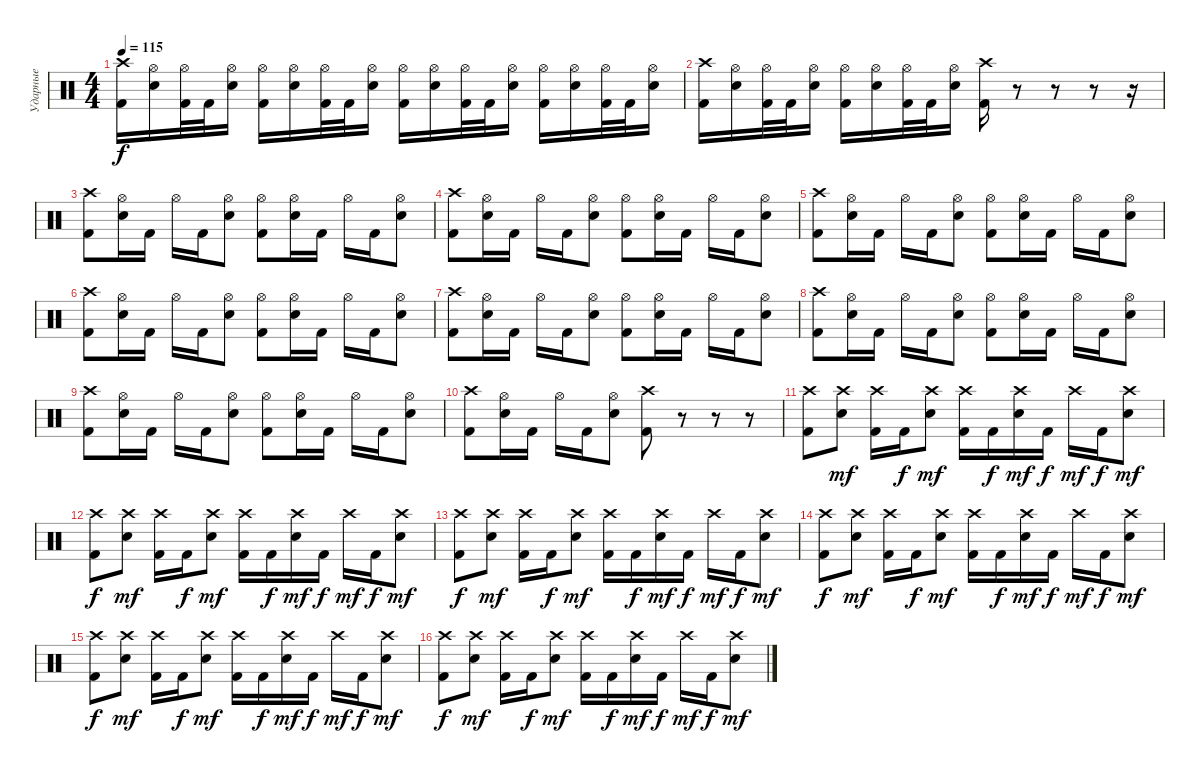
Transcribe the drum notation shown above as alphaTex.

\track ("Ударные" "Ударные") {instrument percussion}
\staff {score}
\articulation defaults
\ts (4 4)
\tempo 115
\clef neutral
\ks c
("Crash high (hit)" "Kick (hit) 2").16{dy f} ("Hi-Hat (open)" "Electric Snare (hit)").16 ("Hi-Hat (open)" "Kick (hit) 2").32 "Kick (hit) 2".32 ("Hi-Hat (open)" "Electric Snare (hit)").16 ("Hi-Hat (open)" "Kick (hit) 2").16 ("Hi-Hat (open)" "Electric Snare (hit)").16 ("Hi-Hat (open)" "Kick (hit) 2").32 "Kick (hit) 2".32 ("Hi-Hat (open)" "Electric Snare (hit)").16 ("Hi-Hat (open)" "Kick (hit) 2").16 ("Hi-Hat (open)" "Electric Snare (hit)").16 ("Hi-Hat (open)" "Kick (hit) 2").32 "Kick (hit) 2".32 ("Hi-Hat (open)" "Electric Snare (hit)").16 ("Hi-Hat (open)" "Kick (hit) 2").16 ("Hi-Hat (open)" "Electric Snare (hit)").16 ("Hi-Hat (open)" "Kick (hit) 2").32 "Kick (hit) 2".32 ("Hi-Hat (open)" "Electric Snare (hit)").16 |
("Crash high (hit)" "Kick (hit) 2").16 ("Hi-Hat (open)" "Electric Snare (hit)").16 ("Hi-Hat (open)" "Kick (hit) 2").32 "Kick (hit) 2".32 ("Hi-Hat (open)" "Electric Snare (hit)").16 ("Hi-Hat (open)" "Kick (hit) 2").16 ("Hi-Hat (open)" "Electric Snare (hit)").16 ("Hi-Hat (open)" "Kick (hit) 2").32 "Kick (hit) 2".32 ("Hi-Hat (open)" "Electric Snare (hit)").16 ("Crash high (hit)" "Kick (hit) 2").16 r.8 r.8 r.8 r.16 |
("Crash high (hit)" "Kick (hit) 2").8 ("Hi-Hat (open)" "Electric Snare (hit)").16 "Kick (hit) 2".16 "Hi-Hat (open)".16 "Kick (hit) 2".16 ("Hi-Hat (open)" "Electric Snare (hit)").8 ("Hi-Hat (open)" "Kick (hit) 2").8 ("Hi-Hat (open)" "Electric Snare (hit)").16 "Kick (hit) 2".16 "Hi-Hat (open)".16 "Kick (hit) 2".16 ("Hi-Hat (open)" "Electric Snare (hit)").8 |
("Crash high (hit)" "Kick (hit) 2").8 ("Hi-Hat (open)" "Electric Snare (hit)").16 "Kick (hit) 2".16 "Hi-Hat (open)".16 "Kick (hit) 2".16 ("Hi-Hat (open)" "Electric Snare (hit)").8 ("Hi-Hat (open)" "Kick (hit) 2").8 ("Hi-Hat (open)" "Electric Snare (hit)").16 "Kick (hit) 2".16 "Hi-Hat (open)".16 "Kick (hit) 2".16 ("Hi-Hat (open)" "Electric Snare (hit)").8 |
("Crash high (hit)" "Kick (hit) 2").8 ("Hi-Hat (open)" "Electric Snare (hit)").16 "Kick (hit) 2".16 "Hi-Hat (open)".16 "Kick (hit) 2".16 ("Hi-Hat (open)" "Electric Snare (hit)").8 ("Hi-Hat (open)" "Kick (hit) 2").8 ("Hi-Hat (open)" "Electric Snare (hit)").16 "Kick (hit) 2".16 "Hi-Hat (open)".16 "Kick (hit) 2".16 ("Hi-Hat (open)" "Electric Snare (hit)").8 |
("Crash high (hit)" "Kick (hit) 2").8 ("Hi-Hat (open)" "Electric Snare (hit)").16 "Kick (hit) 2".16 "Hi-Hat (open)".16 "Kick (hit) 2".16 ("Hi-Hat (open)" "Electric Snare (hit)").8 ("Hi-Hat (open)" "Kick (hit) 2").8 ("Hi-Hat (open)" "Electric Snare (hit)").16 "Kick (hit) 2".16 "Hi-Hat (open)".16 "Kick (hit) 2".16 ("Hi-Hat (open)" "Electric Snare (hit)").8 |
("Crash high (hit)" "Kick (hit) 2").8 ("Hi-Hat (open)" "Electric Snare (hit)").16 "Kick (hit) 2".16 "Hi-Hat (open)".16 "Kick (hit) 2".16 ("Hi-Hat (open)" "Electric Snare (hit)").8 ("Hi-Hat (open)" "Kick (hit) 2").8 ("Hi-Hat (open)" "Electric Snare (hit)").16 "Kick (hit) 2".16 "Hi-Hat (open)".16 "Kick (hit) 2".16 ("Hi-Hat (open)" "Electric Snare (hit)").8 |
("Crash high (hit)" "Kick (hit) 2").8 ("Hi-Hat (open)" "Electric Snare (hit)").16 "Kick (hit) 2".16 "Hi-Hat (open)".16 "Kick (hit) 2".16 ("Hi-Hat (open)" "Electric Snare (hit)").8 ("Hi-Hat (open)" "Kick (hit) 2").8 ("Hi-Hat (open)" "Electric Snare (hit)").16 "Kick (hit) 2".16 "Hi-Hat (open)".16 "Kick (hit) 2".16 ("Hi-Hat (open)" "Electric Snare (hit)").8 |
("Crash high (hit)" "Kick (hit) 2").8 ("Hi-Hat (open)" "Electric Snare (hit)").16 "Kick (hit) 2".16 "Hi-Hat (open)".16 "Kick (hit) 2".16 ("Hi-Hat (open)" "Electric Snare (hit)").8 ("Hi-Hat (open)" "Kick (hit) 2").8 ("Hi-Hat (open)" "Electric Snare (hit)").16 "Kick (hit) 2".16 "Hi-Hat (open)".16 "Kick (hit) 2".16 ("Hi-Hat (open)" "Electric Snare (hit)").8 |
("Crash high (hit)" "Kick (hit) 2").8 ("Hi-Hat (open)" "Electric Snare (hit)").16 "Kick (hit) 2".16 "Hi-Hat (open)".16 "Kick (hit) 2".16 ("Hi-Hat (open)" "Electric Snare (hit)").8 ("Crash high (hit)" "Kick (hit) 2").8 r.8 r.8 r.8 |
("Crash high (hit)" "Kick (hit) 2").8 ("Crash high (hit)" "Electric Snare (hit)").8{dy mf} ("Crash high (hit)" "Kick (hit) 2").16 "Kick (hit) 2".16{dy f} ("Crash high (hit)" "Electric Snare (hit)").8{dy mf} ("Crash high (hit)" "Kick (hit) 2").16 "Kick (hit) 2".16{dy f} ("Crash high (hit)" "Electric Snare (hit)").16{dy mf} "Kick (hit) 2".16{dy f} "Crash high (hit)".16{dy mf} "Kick (hit) 2".16{dy f} ("Crash high (hit)" "Electric Snare (hit)").8{dy mf} |
("Crash high (hit)" "Kick (hit) 2").8{dy f} ("Crash high (hit)" "Electric Snare (hit)").8{dy mf} ("Crash high (hit)" "Kick (hit) 2").16 "Kick (hit) 2".16{dy f} ("Crash high (hit)" "Electric Snare (hit)").8{dy mf} ("Crash high (hit)" "Kick (hit) 2").16 "Kick (hit) 2".16{dy f} ("Crash high (hit)" "Electric Snare (hit)").16{dy mf} "Kick (hit) 2".16{dy f} "Crash high (hit)".16{dy mf} "Kick (hit) 2".16{dy f} ("Crash high (hit)" "Electric Snare (hit)").8{dy mf} |
("Crash high (hit)" "Kick (hit) 2").8{dy f} ("Crash high (hit)" "Electric Snare (hit)").8{dy mf} ("Crash high (hit)" "Kick (hit) 2").16 "Kick (hit) 2".16{dy f} ("Crash high (hit)" "Electric Snare (hit)").8{dy mf} ("Crash high (hit)" "Kick (hit) 2").16 "Kick (hit) 2".16{dy f} ("Crash high (hit)" "Electric Snare (hit)").16{dy mf} "Kick (hit) 2".16{dy f} "Crash high (hit)".16{dy mf} "Kick (hit) 2".16{dy f} ("Crash high (hit)" "Electric Snare (hit)").8{dy mf} |
("Crash high (hit)" "Kick (hit) 2").8{dy f} ("Crash high (hit)" "Electric Snare (hit)").8{dy mf} ("Crash high (hit)" "Kick (hit) 2").16 "Kick (hit) 2".16{dy f} ("Crash high (hit)" "Electric Snare (hit)").8{dy mf} ("Crash high (hit)" "Kick (hit) 2").16 "Kick (hit) 2".16{dy f} ("Crash high (hit)" "Electric Snare (hit)").16{dy mf} "Kick (hit) 2".16{dy f} "Crash high (hit)".16{dy mf} "Kick (hit) 2".16{dy f} ("Crash high (hit)" "Electric Snare (hit)").8{dy mf} |
("Crash high (hit)" "Kick (hit) 2").8{dy f} ("Crash high (hit)" "Electric Snare (hit)").8{dy mf} ("Crash high (hit)" "Kick (hit) 2").16 "Kick (hit) 2".16{dy f} ("Crash high (hit)" "Electric Snare (hit)").8{dy mf} ("Crash high (hit)" "Kick (hit) 2").16 "Kick (hit) 2".16{dy f} ("Crash high (hit)" "Electric Snare (hit)").16{dy mf} "Kick (hit) 2".16{dy f} "Crash high (hit)".16{dy mf} "Kick (hit) 2".16{dy f} ("Crash high (hit)" "Electric Snare (hit)").8{dy mf} |
("Crash high (hit)" "Kick (hit) 2").8{dy f} ("Crash high (hit)" "Electric Snare (hit)").8{dy mf} ("Crash high (hit)" "Kick (hit) 2").16 "Kick (hit) 2".16{dy f} ("Crash high (hit)" "Electric Snare (hit)").8{dy mf} ("Crash high (hit)" "Kick (hit) 2").16 "Kick (hit) 2".16{dy f} ("Crash high (hit)" "Electric Snare (hit)").16{dy mf} "Kick (hit) 2".16{dy f} "Crash high (hit)".16{dy mf} "Kick (hit) 2".16{dy f} ("Crash high (hit)" "Electric Snare (hit)").8{dy mf}
